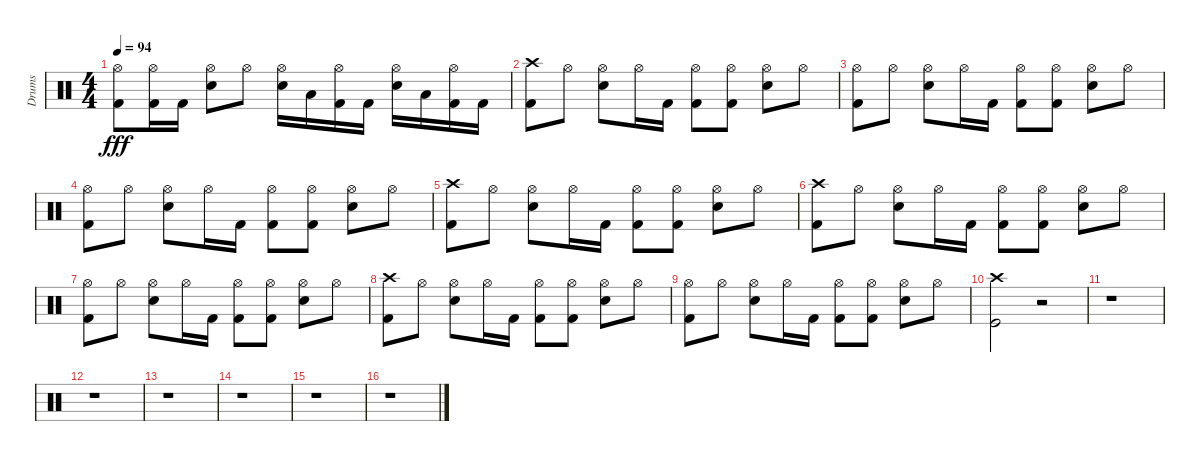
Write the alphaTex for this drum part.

\track ("Drums" "Drums") {instrument percussion}
\staff {score}
\articulation defaults
\ts (4 4)
\tempo 94
\clef neutral
\ks c
("Kick (hit) 2" "Hi-Hat (open)").8{dy fff} ("Kick (hit) 2" "Hi-Hat (open)").16 "Kick (hit) 2".16 ("Snare (hit) 2" "Hi-Hat (open)").8 "Hi-Hat (open)".8 ("Snare (hit) 2" "Hi-Hat (open)").16 "Low Tom (hit)".16 ("Kick (hit) 2" "Hi-Hat (open)").16 "Kick (hit) 2".16 ("Snare (hit) 2" "Hi-Hat (open)").16 "Low Tom (hit)".16 ("Kick (hit) 2" "Hi-Hat (open)").16 "Kick (hit) 2".16 |
("Kick (hit) 2" "Crash high (hit)").8 "Hi-Hat (open)".8 ("Snare (hit) 2" "Hi-Hat (open)").8 "Hi-Hat (open)".16 "Kick (hit) 2".16 ("Kick (hit) 2" "Hi-Hat (open)").8 ("Kick (hit) 2" "Hi-Hat (open)").8 ("Snare (hit) 2" "Hi-Hat (open)").8 "Hi-Hat (open)".8 |
("Kick (hit) 2" "Hi-Hat (open)").8 "Hi-Hat (open)".8 ("Snare (hit) 2" "Hi-Hat (open)").8 "Hi-Hat (open)".16 "Kick (hit) 2".16 ("Kick (hit) 2" "Hi-Hat (open)").8 ("Kick (hit) 2" "Hi-Hat (open)").8 ("Snare (hit) 2" "Hi-Hat (open)").8 "Hi-Hat (open)".8 |
("Kick (hit) 2" "Hi-Hat (open)").8 "Hi-Hat (open)".8 ("Snare (hit) 2" "Hi-Hat (open)").8 "Hi-Hat (open)".16 "Kick (hit) 2".16 ("Kick (hit) 2" "Hi-Hat (open)").8 ("Kick (hit) 2" "Hi-Hat (open)").8 ("Snare (hit) 2" "Hi-Hat (open)").8 "Hi-Hat (open)".8 |
("Kick (hit) 2" "Crash high (hit)").8 "Hi-Hat (open)".8 ("Snare (hit) 2" "Hi-Hat (open)").8 "Hi-Hat (open)".16 "Kick (hit) 2".16 ("Kick (hit) 2" "Hi-Hat (open)").8 ("Kick (hit) 2" "Hi-Hat (open)").8 ("Snare (hit) 2" "Hi-Hat (open)").8 "Hi-Hat (open)".8 |
("Kick (hit) 2" "Crash high (hit)").8 "Hi-Hat (open)".8 ("Snare (hit) 2" "Hi-Hat (open)").8 "Hi-Hat (open)".16 "Kick (hit) 2".16 ("Kick (hit) 2" "Hi-Hat (open)").8 ("Kick (hit) 2" "Hi-Hat (open)").8 ("Snare (hit) 2" "Hi-Hat (open)").8 "Hi-Hat (open)".8 |
("Kick (hit) 2" "Hi-Hat (open)").8 "Hi-Hat (open)".8 ("Snare (hit) 2" "Hi-Hat (open)").8 "Hi-Hat (open)".16 "Kick (hit) 2".16 ("Kick (hit) 2" "Hi-Hat (open)").8 ("Kick (hit) 2" "Hi-Hat (open)").8 ("Snare (hit) 2" "Hi-Hat (open)").8 "Hi-Hat (open)".8 |
("Kick (hit) 2" "Crash high (hit)").8 "Hi-Hat (open)".8 ("Snare (hit) 2" "Hi-Hat (open)").8 "Hi-Hat (open)".16 "Kick (hit) 2".16 ("Kick (hit) 2" "Hi-Hat (open)").8 ("Kick (hit) 2" "Hi-Hat (open)").8 ("Snare (hit) 2" "Hi-Hat (open)").8 "Hi-Hat (open)".8 |
("Kick (hit) 2" "Hi-Hat (open)").8 "Hi-Hat (open)".8 ("Snare (hit) 2" "Hi-Hat (open)").8 "Hi-Hat (open)".16 "Kick (hit) 2".16 ("Kick (hit) 2" "Hi-Hat (open)").8 ("Kick (hit) 2" "Hi-Hat (open)").8 ("Snare (hit) 2" "Hi-Hat (open)").8 "Hi-Hat (open)".8 |
("Kick (hit)" "Crash high (hit)").2 r.2 |
r.1 |
r.1 |
r.1 |
r.1 |
r.1 |
r.1
